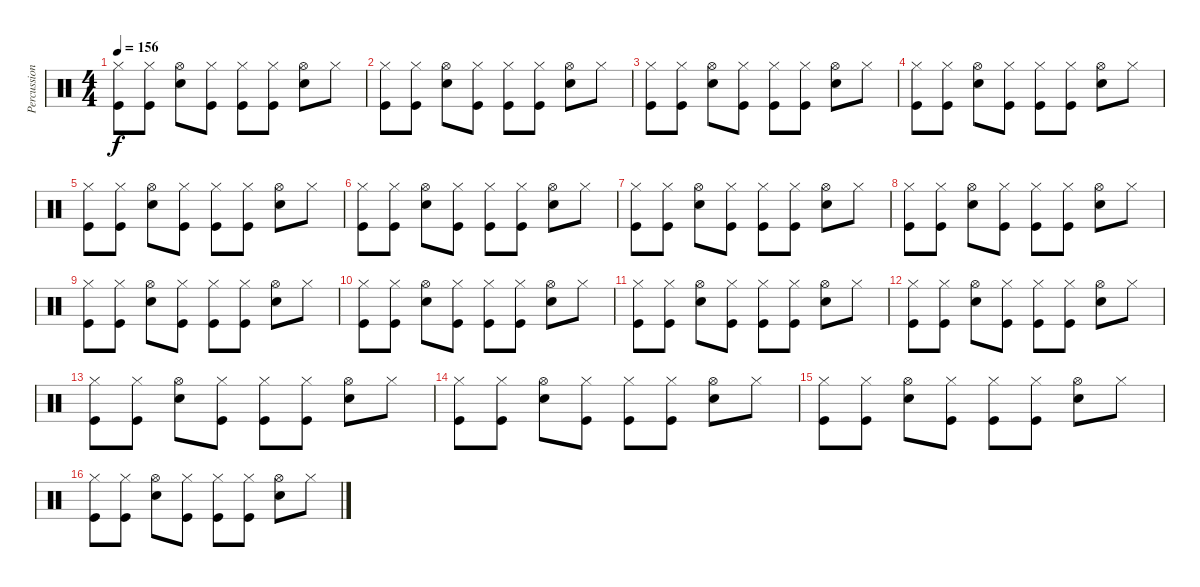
\track ("Percussion" "Percussion") {instrument percussion}
\staff {score}
\articulation defaults
\ts (4 4)
\tempo 156
\clef neutral
\ks c
("Kick (hit)" "Hi-Hat (closed)").8{dy f} ("Kick (hit)" "Hi-Hat (closed)").8 ("Snare (hit) 2" "Hi-Hat (open)").8 ("Kick (hit)" "Hi-Hat (closed)").8 ("Kick (hit)" "Hi-Hat (closed)").8 ("Kick (hit)" "Hi-Hat (closed)").8 ("Snare (hit) 2" "Hi-Hat (open)").8 "Hi-Hat (closed)".8 |
("Kick (hit)" "Hi-Hat (closed)").8 ("Kick (hit)" "Hi-Hat (closed)").8 ("Snare (hit) 2" "Hi-Hat (open)").8 ("Kick (hit)" "Hi-Hat (closed)").8 ("Kick (hit)" "Hi-Hat (closed)").8 ("Kick (hit)" "Hi-Hat (closed)").8 ("Snare (hit) 2" "Hi-Hat (open)").8 "Hi-Hat (closed)".8 |
("Kick (hit)" "Hi-Hat (closed)").8 ("Kick (hit)" "Hi-Hat (closed)").8 ("Snare (hit) 2" "Hi-Hat (open)").8 ("Kick (hit)" "Hi-Hat (closed)").8 ("Kick (hit)" "Hi-Hat (closed)").8 ("Kick (hit)" "Hi-Hat (closed)").8 ("Snare (hit) 2" "Hi-Hat (open)").8 "Hi-Hat (closed)".8 |
("Kick (hit)" "Hi-Hat (closed)").8 ("Kick (hit)" "Hi-Hat (closed)").8 ("Snare (hit) 2" "Hi-Hat (open)").8 ("Kick (hit)" "Hi-Hat (closed)").8 ("Kick (hit)" "Hi-Hat (closed)").8 ("Kick (hit)" "Hi-Hat (closed)").8 ("Snare (hit) 2" "Hi-Hat (open)").8 "Hi-Hat (closed)".8 |
("Kick (hit)" "Hi-Hat (closed)").8 ("Kick (hit)" "Hi-Hat (closed)").8 ("Snare (hit) 2" "Hi-Hat (open)").8 ("Kick (hit)" "Hi-Hat (closed)").8 ("Kick (hit)" "Hi-Hat (closed)").8 ("Kick (hit)" "Hi-Hat (closed)").8 ("Snare (hit) 2" "Hi-Hat (open)").8 "Hi-Hat (closed)".8 |
("Kick (hit)" "Hi-Hat (closed)").8 ("Kick (hit)" "Hi-Hat (closed)").8 ("Snare (hit) 2" "Hi-Hat (open)").8 ("Kick (hit)" "Hi-Hat (closed)").8 ("Kick (hit)" "Hi-Hat (closed)").8 ("Kick (hit)" "Hi-Hat (closed)").8 ("Snare (hit) 2" "Hi-Hat (open)").8 "Hi-Hat (closed)".8 |
("Kick (hit)" "Hi-Hat (closed)").8 ("Kick (hit)" "Hi-Hat (closed)").8 ("Snare (hit) 2" "Hi-Hat (open)").8 ("Kick (hit)" "Hi-Hat (closed)").8 ("Kick (hit)" "Hi-Hat (closed)").8 ("Kick (hit)" "Hi-Hat (closed)").8 ("Snare (hit) 2" "Hi-Hat (open)").8 "Hi-Hat (closed)".8 |
("Kick (hit)" "Hi-Hat (closed)").8 ("Kick (hit)" "Hi-Hat (closed)").8 ("Snare (hit) 2" "Hi-Hat (open)").8 ("Kick (hit)" "Hi-Hat (closed)").8 ("Kick (hit)" "Hi-Hat (closed)").8 ("Kick (hit)" "Hi-Hat (closed)").8 ("Snare (hit) 2" "Hi-Hat (open)").8 "Hi-Hat (closed)".8 |
("Kick (hit)" "Hi-Hat (closed)").8 ("Kick (hit)" "Hi-Hat (closed)").8 ("Snare (hit) 2" "Hi-Hat (open)").8 ("Kick (hit)" "Hi-Hat (closed)").8 ("Kick (hit)" "Hi-Hat (closed)").8 ("Kick (hit)" "Hi-Hat (closed)").8 ("Snare (hit) 2" "Hi-Hat (open)").8 "Hi-Hat (closed)".8 |
("Kick (hit)" "Hi-Hat (closed)").8 ("Kick (hit)" "Hi-Hat (closed)").8 ("Snare (hit) 2" "Hi-Hat (open)").8 ("Kick (hit)" "Hi-Hat (closed)").8 ("Kick (hit)" "Hi-Hat (closed)").8 ("Kick (hit)" "Hi-Hat (closed)").8 ("Snare (hit) 2" "Hi-Hat (open)").8 "Hi-Hat (closed)".8 |
("Kick (hit)" "Hi-Hat (closed)").8 ("Kick (hit)" "Hi-Hat (closed)").8 ("Snare (hit) 2" "Hi-Hat (open)").8 ("Kick (hit)" "Hi-Hat (closed)").8 ("Kick (hit)" "Hi-Hat (closed)").8 ("Kick (hit)" "Hi-Hat (closed)").8 ("Snare (hit) 2" "Hi-Hat (open)").8 "Hi-Hat (closed)".8 |
("Kick (hit)" "Hi-Hat (closed)").8 ("Kick (hit)" "Hi-Hat (closed)").8 ("Snare (hit) 2" "Hi-Hat (open)").8 ("Kick (hit)" "Hi-Hat (closed)").8 ("Kick (hit)" "Hi-Hat (closed)").8 ("Kick (hit)" "Hi-Hat (closed)").8 ("Snare (hit) 2" "Hi-Hat (open)").8 "Hi-Hat (closed)".8 |
("Kick (hit)" "Hi-Hat (closed)").8 ("Kick (hit)" "Hi-Hat (closed)").8 ("Snare (hit) 2" "Hi-Hat (open)").8 ("Kick (hit)" "Hi-Hat (closed)").8 ("Kick (hit)" "Hi-Hat (closed)").8 ("Kick (hit)" "Hi-Hat (closed)").8 ("Snare (hit) 2" "Hi-Hat (open)").8 "Hi-Hat (closed)".8 |
("Kick (hit)" "Hi-Hat (closed)").8 ("Kick (hit)" "Hi-Hat (closed)").8 ("Snare (hit) 2" "Hi-Hat (open)").8 ("Kick (hit)" "Hi-Hat (closed)").8 ("Kick (hit)" "Hi-Hat (closed)").8 ("Kick (hit)" "Hi-Hat (closed)").8 ("Snare (hit) 2" "Hi-Hat (open)").8 "Hi-Hat (closed)".8 |
("Kick (hit)" "Hi-Hat (closed)").8 ("Kick (hit)" "Hi-Hat (closed)").8 ("Snare (hit) 2" "Hi-Hat (open)").8 ("Kick (hit)" "Hi-Hat (closed)").8 ("Kick (hit)" "Hi-Hat (closed)").8 ("Kick (hit)" "Hi-Hat (closed)").8 ("Snare (hit) 2" "Hi-Hat (open)").8 "Hi-Hat (closed)".8 |
("Kick (hit)" "Hi-Hat (closed)").8 ("Kick (hit)" "Hi-Hat (closed)").8 ("Snare (hit) 2" "Hi-Hat (open)").8 ("Kick (hit)" "Hi-Hat (closed)").8 ("Kick (hit)" "Hi-Hat (closed)").8 ("Kick (hit)" "Hi-Hat (closed)").8 ("Snare (hit) 2" "Hi-Hat (open)").8 "Hi-Hat (closed)".8
